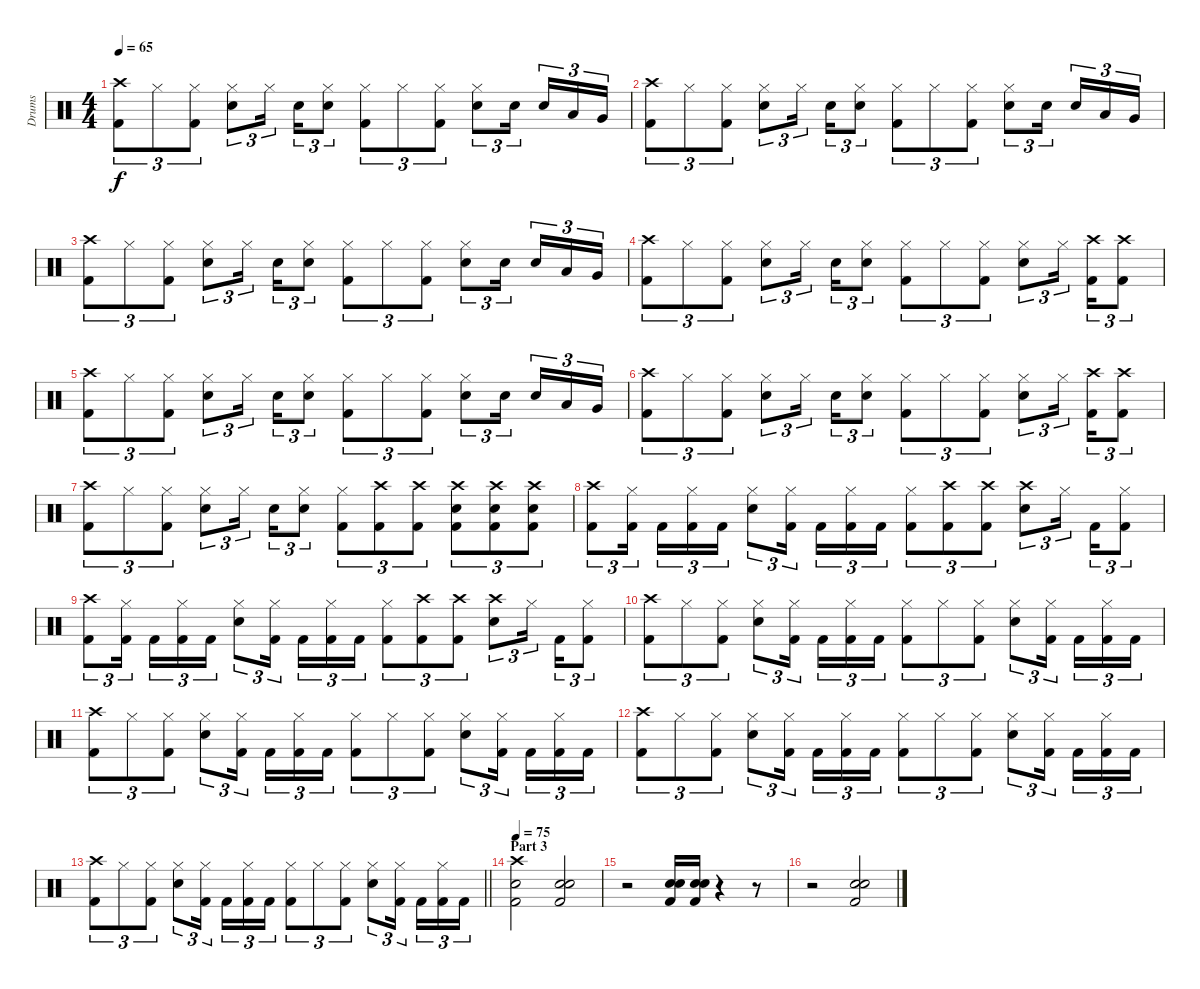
\track ("Drums" "Drums") {instrument percussion}
\staff {score}
\articulation defaults
\ts (4 4)
\tempo 65
\clef neutral
\ks c
("Crash high (hit)" "Kick (hit) 2").8{tu (3 2) dy f} "Hi-Hat (closed)".8{tu (3 2)} ("Hi-Hat (closed)" "Kick (hit) 2").8{tu (3 2)} ("Hi-Hat (closed)" "Electric Snare (hit)").8{tu (3 2)} "Hi-Hat (closed)".16{tu (3 2)} "Electric Snare (hit)".16{tu (3 2)} ("Hi-Hat (closed)" "Electric Snare (hit)").8{tu (3 2)} ("Hi-Hat (closed)" "Kick (hit) 2").8{tu (3 2)} "Hi-Hat (closed)".8{tu (3 2)} ("Hi-Hat (closed)" "Kick (hit) 2").8{tu (3 2)} ("Hi-Hat (closed)" "Electric Snare (hit)").8{tu (3 2)} "Electric Snare (hit)".16{tu (3 2)} "Electric Snare (hit)".16{tu (3 2)} "Low Tom (hit)".16{tu (3 2)} "Very Low Tom (hit)".16{tu (3 2)} |
("Crash high (hit)" "Kick (hit) 2").8{tu (3 2)} "Hi-Hat (closed)".8{tu (3 2)} ("Hi-Hat (closed)" "Kick (hit) 2").8{tu (3 2)} ("Hi-Hat (closed)" "Electric Snare (hit)").8{tu (3 2)} "Hi-Hat (closed)".16{tu (3 2)} "Electric Snare (hit)".16{tu (3 2)} ("Hi-Hat (closed)" "Electric Snare (hit)").8{tu (3 2)} ("Hi-Hat (closed)" "Kick (hit) 2").8{tu (3 2)} "Hi-Hat (closed)".8{tu (3 2)} ("Hi-Hat (closed)" "Kick (hit) 2").8{tu (3 2)} ("Hi-Hat (closed)" "Electric Snare (hit)").8{tu (3 2)} "Electric Snare (hit)".16{tu (3 2)} "Electric Snare (hit)".16{tu (3 2)} "Low Tom (hit)".16{tu (3 2)} "Very Low Tom (hit)".16{tu (3 2)} |
("Crash high (hit)" "Kick (hit) 2").8{tu (3 2)} "Hi-Hat (closed)".8{tu (3 2)} ("Hi-Hat (closed)" "Kick (hit) 2").8{tu (3 2)} ("Hi-Hat (closed)" "Electric Snare (hit)").8{tu (3 2)} "Hi-Hat (closed)".16{tu (3 2)} "Electric Snare (hit)".16{tu (3 2)} ("Hi-Hat (closed)" "Electric Snare (hit)").8{tu (3 2)} ("Hi-Hat (closed)" "Kick (hit) 2").8{tu (3 2)} "Hi-Hat (closed)".8{tu (3 2)} ("Hi-Hat (closed)" "Kick (hit) 2").8{tu (3 2)} ("Hi-Hat (closed)" "Electric Snare (hit)").8{tu (3 2)} "Electric Snare (hit)".16{tu (3 2)} "Electric Snare (hit)".16{tu (3 2)} "Low Tom (hit)".16{tu (3 2)} "Very Low Tom (hit)".16{tu (3 2)} |
("Crash high (hit)" "Kick (hit) 2").8{tu (3 2)} "Hi-Hat (closed)".8{tu (3 2)} ("Hi-Hat (closed)" "Kick (hit) 2").8{tu (3 2)} ("Hi-Hat (closed)" "Electric Snare (hit)").8{tu (3 2)} "Hi-Hat (closed)".16{tu (3 2)} "Electric Snare (hit)".16{tu (3 2)} ("Hi-Hat (closed)" "Electric Snare (hit)").8{tu (3 2)} ("Hi-Hat (closed)" "Kick (hit) 2").8{tu (3 2)} "Hi-Hat (closed)".8{tu (3 2)} ("Hi-Hat (closed)" "Kick (hit) 2").8{tu (3 2)} ("Hi-Hat (closed)" "Electric Snare (hit)").8{tu (3 2)} "Hi-Hat (closed)".16{tu (3 2)} ("Crash high (hit)" "Kick (hit) 2").16{tu (3 2)} ("Crash high (hit)" "Kick (hit) 2").8{tu (3 2)} |
("Crash high (hit)" "Kick (hit) 2").8{tu (3 2)} "Hi-Hat (closed)".8{tu (3 2)} ("Hi-Hat (closed)" "Kick (hit) 2").8{tu (3 2)} ("Hi-Hat (closed)" "Electric Snare (hit)").8{tu (3 2)} "Hi-Hat (closed)".16{tu (3 2)} "Electric Snare (hit)".16{tu (3 2)} ("Hi-Hat (closed)" "Electric Snare (hit)").8{tu (3 2)} ("Hi-Hat (closed)" "Kick (hit) 2").8{tu (3 2)} "Hi-Hat (closed)".8{tu (3 2)} ("Hi-Hat (closed)" "Kick (hit) 2").8{tu (3 2)} ("Hi-Hat (closed)" "Electric Snare (hit)").8{tu (3 2)} "Electric Snare (hit)".16{tu (3 2)} "Electric Snare (hit)".16{tu (3 2)} "Low Tom (hit)".16{tu (3 2)} "Very Low Tom (hit)".16{tu (3 2)} |
("Crash high (hit)" "Kick (hit) 2").8{tu (3 2)} "Hi-Hat (closed)".8{tu (3 2)} ("Hi-Hat (closed)" "Kick (hit) 2").8{tu (3 2)} ("Hi-Hat (closed)" "Electric Snare (hit)").8{tu (3 2)} "Hi-Hat (closed)".16{tu (3 2)} "Electric Snare (hit)".16{tu (3 2)} ("Hi-Hat (closed)" "Electric Snare (hit)").8{tu (3 2)} ("Hi-Hat (closed)" "Kick (hit) 2").8{tu (3 2)} "Hi-Hat (closed)".8{tu (3 2)} ("Hi-Hat (closed)" "Kick (hit) 2").8{tu (3 2)} ("Hi-Hat (closed)" "Electric Snare (hit)").8{tu (3 2)} "Hi-Hat (closed)".16{tu (3 2)} ("Crash high (hit)" "Kick (hit) 2").16{tu (3 2)} ("Crash high (hit)" "Kick (hit) 2").8{tu (3 2)} |
("Crash high (hit)" "Kick (hit) 2").8{tu (3 2)} "Hi-Hat (closed)".8{tu (3 2)} ("Hi-Hat (closed)" "Kick (hit) 2").8{tu (3 2)} ("Hi-Hat (closed)" "Electric Snare (hit)").8{tu (3 2)} "Hi-Hat (closed)".16{tu (3 2)} "Electric Snare (hit)".16{tu (3 2)} ("Hi-Hat (closed)" "Electric Snare (hit)").8{tu (3 2)} ("Hi-Hat (closed)" "Kick (hit) 2").8{tu (3 2)} ("Crash high (hit)" "Kick (hit) 2").8{tu (3 2)} ("Crash high (hit)" "Kick (hit) 2").8{tu (3 2)} ("Crash high (hit)" "Electric Snare (hit)" "Kick (hit) 2").8{tu (3 2)} ("Crash high (hit)" "Electric Snare (hit)" "Kick (hit) 2").8{tu (3 2)} ("Crash high (hit)" "Electric Snare (hit)" "Kick (hit) 2").8{tu (3 2)} |
("Crash high (hit)" "Kick (hit) 2").8{tu (3 2)} ("Hi-Hat (closed)" "Kick (hit) 2").16{tu (3 2)} "Kick (hit) 2".16{tu (3 2)} ("Hi-Hat (closed)" "Kick (hit) 2").16{tu (3 2)} "Kick (hit) 2".16{tu (3 2)} ("Hi-Hat (closed)" "Electric Snare (hit)").8{tu (3 2)} ("Hi-Hat (closed)" "Kick (hit) 2").16{tu (3 2)} "Kick (hit) 2".16{tu (3 2)} ("Hi-Hat (closed)" "Kick (hit) 2").16{tu (3 2)} "Kick (hit) 2".16{tu (3 2)} ("Hi-Hat (closed)" "Kick (hit) 2").8{tu (3 2)} ("Crash high (hit)" "Kick (hit) 2").8{tu (3 2)} ("Crash high (hit)" "Kick (hit) 2").8{tu (3 2)} ("Crash high (hit)" "Electric Snare (hit)").8{tu (3 2)} "Hi-Hat (closed)".16{tu (3 2)} "Kick (hit) 2".16{tu (3 2)} ("Hi-Hat (closed)" "Kick (hit) 2").8{tu (3 2)} |
("Crash high (hit)" "Kick (hit) 2").8{tu (3 2)} ("Hi-Hat (closed)" "Kick (hit) 2").16{tu (3 2)} "Kick (hit) 2".16{tu (3 2)} ("Hi-Hat (closed)" "Kick (hit) 2").16{tu (3 2)} "Kick (hit) 2".16{tu (3 2)} ("Hi-Hat (closed)" "Electric Snare (hit)").8{tu (3 2)} ("Hi-Hat (closed)" "Kick (hit) 2").16{tu (3 2)} "Kick (hit) 2".16{tu (3 2)} ("Hi-Hat (closed)" "Kick (hit) 2").16{tu (3 2)} "Kick (hit) 2".16{tu (3 2)} ("Hi-Hat (closed)" "Kick (hit) 2").8{tu (3 2)} ("Crash high (hit)" "Kick (hit) 2").8{tu (3 2)} ("Crash high (hit)" "Kick (hit) 2").8{tu (3 2)} ("Crash high (hit)" "Electric Snare (hit)").8{tu (3 2)} "Hi-Hat (closed)".16{tu (3 2)} "Kick (hit) 2".16{tu (3 2)} ("Hi-Hat (closed)" "Kick (hit) 2").8{tu (3 2)} |
("Crash high (hit)" "Kick (hit) 2").8{tu (3 2)} "Hi-Hat (closed)".8{tu (3 2)} ("Hi-Hat (closed)" "Kick (hit) 2").8{tu (3 2)} ("Hi-Hat (closed)" "Electric Snare (hit)").8{tu (3 2)} ("Hi-Hat (closed)" "Kick (hit) 2").16{tu (3 2)} "Kick (hit) 2".16{tu (3 2)} ("Hi-Hat (closed)" "Kick (hit) 2").16{tu (3 2)} "Kick (hit) 2".16{tu (3 2)} ("Hi-Hat (closed)" "Kick (hit) 2").8{tu (3 2)} "Hi-Hat (closed)".8{tu (3 2)} ("Hi-Hat (closed)" "Kick (hit) 2").8{tu (3 2)} ("Hi-Hat (closed)" "Electric Snare (hit)").8{tu (3 2)} ("Hi-Hat (closed)" "Kick (hit) 2").16{tu (3 2)} "Kick (hit) 2".16{tu (3 2)} ("Hi-Hat (closed)" "Kick (hit) 2").16{tu (3 2)} "Kick (hit) 2".16{tu (3 2)} |
("Crash high (hit)" "Kick (hit) 2").8{tu (3 2)} "Hi-Hat (closed)".8{tu (3 2)} ("Hi-Hat (closed)" "Kick (hit) 2").8{tu (3 2)} ("Hi-Hat (closed)" "Electric Snare (hit)").8{tu (3 2)} ("Hi-Hat (closed)" "Kick (hit) 2").16{tu (3 2)} "Kick (hit) 2".16{tu (3 2)} ("Hi-Hat (closed)" "Kick (hit) 2").16{tu (3 2)} "Kick (hit) 2".16{tu (3 2)} ("Hi-Hat (closed)" "Kick (hit) 2").8{tu (3 2)} "Hi-Hat (closed)".8{tu (3 2)} ("Hi-Hat (closed)" "Kick (hit) 2").8{tu (3 2)} ("Hi-Hat (closed)" "Electric Snare (hit)").8{tu (3 2)} ("Hi-Hat (closed)" "Kick (hit) 2").16{tu (3 2)} "Kick (hit) 2".16{tu (3 2)} ("Hi-Hat (closed)" "Kick (hit) 2").16{tu (3 2)} "Kick (hit) 2".16{tu (3 2)} |
("Crash high (hit)" "Kick (hit) 2").8{tu (3 2)} "Hi-Hat (closed)".8{tu (3 2)} ("Hi-Hat (closed)" "Kick (hit) 2").8{tu (3 2)} ("Hi-Hat (closed)" "Electric Snare (hit)").8{tu (3 2)} ("Hi-Hat (closed)" "Kick (hit) 2").16{tu (3 2)} "Kick (hit) 2".16{tu (3 2)} ("Hi-Hat (closed)" "Kick (hit) 2").16{tu (3 2)} "Kick (hit) 2".16{tu (3 2)} ("Hi-Hat (closed)" "Kick (hit) 2").8{tu (3 2)} "Hi-Hat (closed)".8{tu (3 2)} ("Hi-Hat (closed)" "Kick (hit) 2").8{tu (3 2)} ("Hi-Hat (closed)" "Electric Snare (hit)").8{tu (3 2)} ("Hi-Hat (closed)" "Kick (hit) 2").16{tu (3 2)} "Kick (hit) 2".16{tu (3 2)} ("Hi-Hat (closed)" "Kick (hit) 2").16{tu (3 2)} "Kick (hit) 2".16{tu (3 2)} |
\barLineRight lightlight
("Crash high (hit)" "Kick (hit) 2").8{tu (3 2)} "Hi-Hat (closed)".8{tu (3 2)} ("Hi-Hat (closed)" "Kick (hit) 2").8{tu (3 2)} ("Hi-Hat (closed)" "Electric Snare (hit)").8{tu (3 2)} ("Hi-Hat (closed)" "Kick (hit) 2").16{tu (3 2)} "Kick (hit) 2".16{tu (3 2)} ("Hi-Hat (closed)" "Kick (hit) 2").16{tu (3 2)} "Kick (hit) 2".16{tu (3 2)} ("Hi-Hat (closed)" "Kick (hit) 2").8{tu (3 2)} "Hi-Hat (closed)".8{tu (3 2)} ("Hi-Hat (closed)" "Kick (hit) 2").8{tu (3 2)} ("Hi-Hat (closed)" "Electric Snare (hit)").8{tu (3 2)} ("Hi-Hat (closed)" "Kick (hit) 2").16{tu (3 2)} "Kick (hit) 2".16{tu (3 2)} ("Hi-Hat (closed)" "Kick (hit) 2").16{tu (3 2)} "Kick (hit) 2".16{tu (3 2)} |
\section ("" "Part 3")
\tempo 75
("Crash high (hit)" "Electric Snare (hit)" "Kick (hit) 2").2 ("Snare (hit) 2" "Electric Snare (hit)" "Kick (hit) 2").2 |
r.2 ("Snare (hit) 2" "Electric Snare (hit)" "Kick (hit) 2").16 ("Snare (hit) 2" "Electric Snare (hit)" "Kick (hit) 2").16 r.4 r.8 |
r.2 ("Snare (hit) 2" "Electric Snare (hit)" "Kick (hit) 2").2
